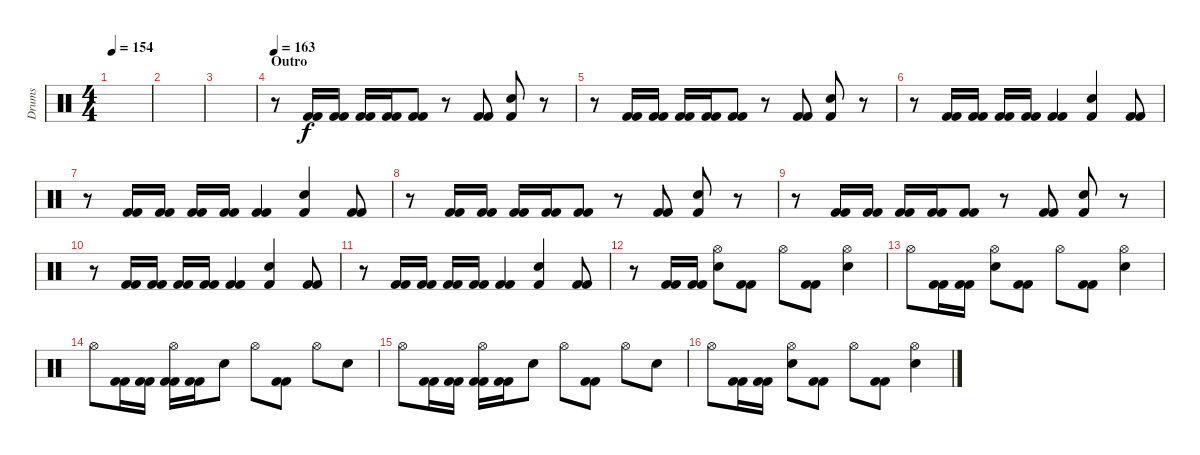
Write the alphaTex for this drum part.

\track ("Drums" "Drums") {instrument percussion}
\staff {score}
\articulation defaults
\ts (4 4)
\tempo 154
\clef neutral
\ks c
|
|
|
\section ("" "Outro")
\tempo 163
r.8 ("Kick (hit) 2" "Kick (hit) 2").16 ("Kick (hit) 2" "Kick (hit) 2").16 ("Kick (hit) 2" "Kick (hit) 2").16 ("Kick (hit) 2" "Kick (hit) 2").16 ("Kick (hit) 2" "Kick (hit) 2").8 r.8 ("Kick (hit) 2" "Kick (hit) 2").8 ("Electric Snare (hit)" "Kick (hit) 2").8 r.8 |
r.8 ("Kick (hit) 2" "Kick (hit) 2").16 ("Kick (hit) 2" "Kick (hit) 2").16 ("Kick (hit) 2" "Kick (hit) 2").16 ("Kick (hit) 2" "Kick (hit) 2").16 ("Kick (hit) 2" "Kick (hit) 2").8 r.8 ("Kick (hit) 2" "Kick (hit) 2").8 ("Electric Snare (hit)" "Kick (hit) 2").8 r.8 |
r.8 ("Kick (hit) 2" "Kick (hit) 2").16 ("Kick (hit) 2" "Kick (hit) 2").16 ("Kick (hit) 2" "Kick (hit) 2").16 ("Kick (hit) 2" "Kick (hit) 2").16 ("Kick (hit) 2" "Kick (hit) 2").4 ("Electric Snare (hit)" "Kick (hit) 2").4 ("Kick (hit) 2" "Kick (hit) 2").8 |
r.8 ("Kick (hit) 2" "Kick (hit) 2").16 ("Kick (hit) 2" "Kick (hit) 2").16 ("Kick (hit) 2" "Kick (hit) 2").16 ("Kick (hit) 2" "Kick (hit) 2").16 ("Kick (hit) 2" "Kick (hit) 2").4 ("Electric Snare (hit)" "Kick (hit) 2").4 ("Kick (hit) 2" "Kick (hit) 2").8 |
r.8 ("Kick (hit) 2" "Kick (hit) 2").16 ("Kick (hit) 2" "Kick (hit) 2").16 ("Kick (hit) 2" "Kick (hit) 2").16 ("Kick (hit) 2" "Kick (hit) 2").16 ("Kick (hit) 2" "Kick (hit) 2").8 r.8 ("Kick (hit) 2" "Kick (hit) 2").8 ("Electric Snare (hit)" "Kick (hit) 2").8 r.8 |
r.8 ("Kick (hit) 2" "Kick (hit) 2").16 ("Kick (hit) 2" "Kick (hit) 2").16 ("Kick (hit) 2" "Kick (hit) 2").16 ("Kick (hit) 2" "Kick (hit) 2").16 ("Kick (hit) 2" "Kick (hit) 2").8 r.8 ("Kick (hit) 2" "Kick (hit) 2").8 ("Electric Snare (hit)" "Kick (hit) 2").8 r.8 |
r.8 ("Kick (hit) 2" "Kick (hit) 2").16 ("Kick (hit) 2" "Kick (hit) 2").16 ("Kick (hit) 2" "Kick (hit) 2").16 ("Kick (hit) 2" "Kick (hit) 2").16 ("Kick (hit) 2" "Kick (hit) 2").4 ("Electric Snare (hit)" "Kick (hit) 2").4 ("Kick (hit) 2" "Kick (hit) 2").8 |
r.8 ("Kick (hit) 2" "Kick (hit) 2").16 ("Kick (hit) 2" "Kick (hit) 2").16 ("Kick (hit) 2" "Kick (hit) 2").16 ("Kick (hit) 2" "Kick (hit) 2").16 ("Kick (hit) 2" "Kick (hit) 2").4 ("Electric Snare (hit)" "Kick (hit) 2").4 ("Kick (hit) 2" "Kick (hit) 2").8 |
r.8 ("Kick (hit) 2" "Kick (hit) 2").16 ("Kick (hit) 2" "Kick (hit) 2").16 ("Hi-Hat (open)" "Snare (hit) 2").8 ("Kick (hit) 2" "Kick (hit) 2").8 "Hi-Hat (open)".8 ("Kick (hit) 2" "Kick (hit) 2").8 ("Hi-Hat (open)" "Snare (hit) 2").4 |
"Hi-Hat (open)".8 ("Kick (hit) 2" "Kick (hit) 2").16 ("Kick (hit) 2" "Kick (hit) 2").16 ("Hi-Hat (open)" "Snare (hit) 2").8 ("Kick (hit) 2" "Kick (hit) 2").8 "Hi-Hat (open)".8 ("Kick (hit) 2" "Kick (hit) 2").8 ("Hi-Hat (open)" "Snare (hit) 2").4 |
"Hi-Hat (open)".8 ("Kick (hit) 2" "Kick (hit) 2").16 ("Kick (hit) 2" "Kick (hit) 2").16 ("Hi-Hat (open)" "Kick (hit) 2" "Kick (hit) 2").16 ("Kick (hit) 2" "Kick (hit) 2").16 "Snare (hit) 2".8 "Hi-Hat (open)".8 ("Kick (hit) 2" "Kick (hit) 2").8 "Hi-Hat (open)".8 "Snare (hit) 2".8 |
"Hi-Hat (open)".8 ("Kick (hit) 2" "Kick (hit) 2").16 ("Kick (hit) 2" "Kick (hit) 2").16 ("Hi-Hat (open)" "Kick (hit) 2" "Kick (hit) 2").16 ("Kick (hit) 2" "Kick (hit) 2").16 "Snare (hit) 2".8 "Hi-Hat (open)".8 ("Kick (hit) 2" "Kick (hit) 2").8 "Hi-Hat (open)".8 "Snare (hit) 2".8 |
"Hi-Hat (open)".8 ("Kick (hit) 2" "Kick (hit) 2").16 ("Kick (hit) 2" "Kick (hit) 2").16 ("Hi-Hat (open)" "Snare (hit) 2").8 ("Kick (hit) 2" "Kick (hit) 2").8 "Hi-Hat (open)".8 ("Kick (hit) 2" "Kick (hit) 2").8 ("Hi-Hat (open)" "Snare (hit) 2").4
